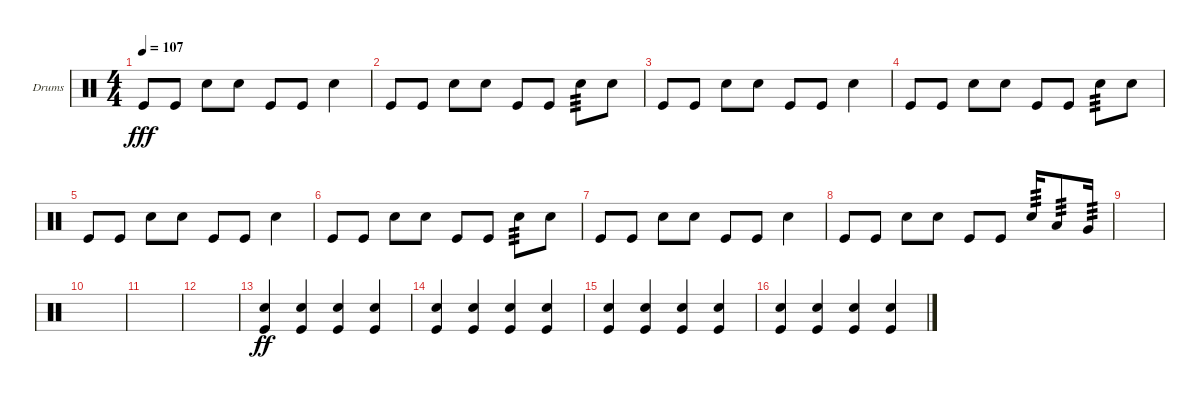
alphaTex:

\defaultSystemsLayout 4
\bracketExtendMode groupsimilarinstruments
\firstSystemTrackNameOrientation horizontal
\otherSystemsTrackNameOrientation horizontal
\track ("Helders" "Drums") {instrument percussion}
\staff {score}
\articulation defaults
\ts (4 4)
\tempo 107
\clef neutral
\ks c "Kick (hit)".8{dy fff} "Kick (hit)".8 "Snare (hit) 2".8 "Snare (hit) 2".8 "Kick (hit)".8 "Kick (hit)".8 "Snare (hit) 2".4
|
"Kick (hit)".8 "Kick (hit)".8 "Snare (hit) 2".8 "Snare (hit) 2".8 "Kick (hit)".8 "Kick (hit)".8 "Snare (hit) 2".8{tp 3} "Snare (hit) 2".8 |
"Kick (hit)".8 "Kick (hit)".8 "Snare (hit) 2".8 "Snare (hit) 2".8 "Kick (hit)".8 "Kick (hit)".8 "Snare (hit) 2".4 |
"Kick (hit)".8 "Kick (hit)".8 "Snare (hit) 2".8 "Snare (hit) 2".8 "Kick (hit)".8 "Kick (hit)".8 "Snare (hit) 2".8{tp 3} "Snare (hit) 2".8 |
"Kick (hit)".8 "Kick (hit)".8 "Snare (hit) 2".8 "Snare (hit) 2".8 "Kick (hit)".8 "Kick (hit)".8 "Snare (hit) 2".4 |
"Kick (hit)".8 "Kick (hit)".8 "Snare (hit) 2".8 "Snare (hit) 2".8 "Kick (hit)".8 "Kick (hit)".8 "Snare (hit) 2".8{tp 3} "Snare (hit) 2".8 |
"Kick (hit)".8 "Kick (hit)".8 "Snare (hit) 2".8 "Snare (hit) 2".8 "Kick (hit)".8 "Kick (hit)".8 "Snare (hit) 2".4 |
"Kick (hit)".8 "Kick (hit)".8 "Snare (hit) 2".8 "Snare (hit) 2".8 "Kick (hit)".8 "Kick (hit)".8 "Snare (hit) 2".16{tp 3} "Low Tom (hit)".8{tp 3} "Very Low Tom (hit)".16{tp 3} |
|
|
|
|
("Snare (hit) 2" "Kick (hit)").4{dy ff} ("Snare (hit) 2" "Kick (hit)").4 ("Snare (hit) 2" "Kick (hit)").4 ("Snare (hit) 2" "Kick (hit)").4 |
("Snare (hit) 2" "Kick (hit)").4 ("Snare (hit) 2" "Kick (hit)").4 ("Snare (hit) 2" "Kick (hit)").4 ("Snare (hit) 2" "Kick (hit)").4 |
("Snare (hit) 2" "Kick (hit)").4 ("Snare (hit) 2" "Kick (hit)").4 ("Snare (hit) 2" "Kick (hit)").4 ("Snare (hit) 2" "Kick (hit)").4 |
("Snare (hit) 2" "Kick (hit)").4 ("Snare (hit) 2" "Kick (hit)").4 ("Snare (hit) 2" "Kick (hit)").4 ("Snare (hit) 2" "Kick (hit)").4
